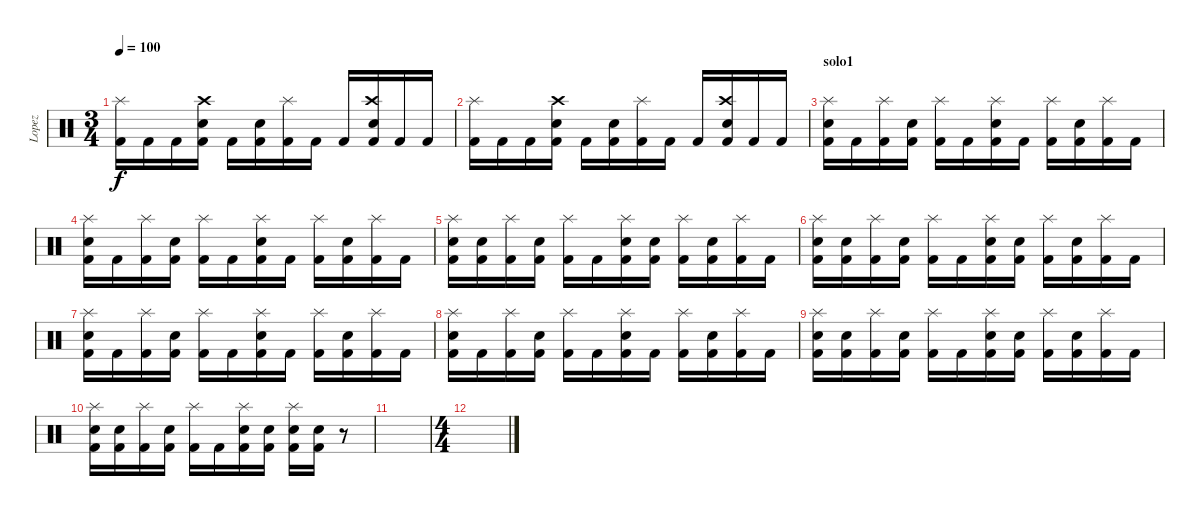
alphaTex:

\track ("Lopez" "Lopez") {instrument percussion}
\staff {score}
\articulation defaults
\ts (3 4)
\tempo 100
\clef neutral
\ks c
("Splash (hit)" "Kick (hit) 2").16{dy f} "Kick (hit) 2".16 "Kick (hit) 2".16 ("Crash high (hit)" "Snare (hit) 2" "Kick (hit) 2").16 "Kick (hit) 2".16 ("Snare (hit) 2" "Kick (hit) 2").16 ("Splash (hit)" "Kick (hit) 2").16 "Kick (hit) 2".16 "Kick (hit) 2".16 ("Crash high (hit)" "Snare (hit) 2" "Kick (hit) 2").16 "Kick (hit) 2".16 "Kick (hit) 2".16 |
("Splash (hit)" "Kick (hit) 2").16 "Kick (hit) 2".16 "Kick (hit) 2".16 ("Crash high (hit)" "Snare (hit) 2" "Kick (hit) 2").16 "Kick (hit) 2".16 ("Snare (hit) 2" "Kick (hit) 2").16 ("Splash (hit)" "Kick (hit) 2").16 "Kick (hit) 2".16 "Kick (hit) 2".16 ("Crash high (hit)" "Snare (hit) 2" "Kick (hit) 2").16 "Kick (hit) 2".16 "Kick (hit) 2".16 |
\section ("" "solo1")
("Splash (hit)" "Snare (hit) 2" "Kick (hit) 2").16 "Kick (hit) 2".16 ("Splash (hit)" "Kick (hit) 2").16 ("Snare (hit) 2" "Kick (hit) 2").16 ("Splash (hit)" "Kick (hit) 2").16 "Kick (hit) 2".16 ("Splash (hit)" "Snare (hit) 2" "Kick (hit) 2").16 "Kick (hit) 2".16 ("Splash (hit)" "Kick (hit) 2").16 ("Snare (hit) 2" "Kick (hit) 2").16 ("Splash (hit)" "Kick (hit) 2").16 "Kick (hit) 2".16 |
("Splash (hit)" "Snare (hit) 2" "Kick (hit) 2").16 "Kick (hit) 2".16 ("Splash (hit)" "Kick (hit) 2").16 ("Snare (hit) 2" "Kick (hit) 2").16 ("Splash (hit)" "Kick (hit) 2").16 "Kick (hit) 2".16 ("Splash (hit)" "Snare (hit) 2" "Kick (hit) 2").16 "Kick (hit) 2".16 ("Splash (hit)" "Kick (hit) 2").16 ("Snare (hit) 2" "Kick (hit) 2").16 ("Splash (hit)" "Kick (hit) 2").16 "Kick (hit) 2".16 |
("Splash (hit)" "Snare (hit) 2" "Kick (hit) 2").16 ("Snare (hit) 2" "Kick (hit) 2").16 ("Splash (hit)" "Kick (hit) 2").16 ("Snare (hit) 2" "Kick (hit) 2").16 ("Splash (hit)" "Kick (hit) 2").16 "Kick (hit) 2".16 ("Splash (hit)" "Snare (hit) 2" "Kick (hit) 2").16 ("Snare (hit) 2" "Kick (hit) 2").16 ("Splash (hit)" "Kick (hit) 2").16 ("Snare (hit) 2" "Kick (hit) 2").16 ("Splash (hit)" "Kick (hit) 2").16 "Kick (hit) 2".16 |
("Splash (hit)" "Snare (hit) 2" "Kick (hit) 2").16 ("Snare (hit) 2" "Kick (hit) 2").16 ("Splash (hit)" "Kick (hit) 2").16 ("Snare (hit) 2" "Kick (hit) 2").16 ("Splash (hit)" "Kick (hit) 2").16 "Kick (hit) 2".16 ("Splash (hit)" "Snare (hit) 2" "Kick (hit) 2").16 ("Snare (hit) 2" "Kick (hit) 2").16 ("Splash (hit)" "Kick (hit) 2").16 ("Snare (hit) 2" "Kick (hit) 2").16 ("Splash (hit)" "Kick (hit) 2").16 "Kick (hit) 2".16 |
("Splash (hit)" "Snare (hit) 2" "Kick (hit) 2").16 "Kick (hit) 2".16 ("Splash (hit)" "Kick (hit) 2").16 ("Snare (hit) 2" "Kick (hit) 2").16 ("Splash (hit)" "Kick (hit) 2").16 "Kick (hit) 2".16 ("Splash (hit)" "Snare (hit) 2" "Kick (hit) 2").16 "Kick (hit) 2".16 ("Splash (hit)" "Kick (hit) 2").16 ("Snare (hit) 2" "Kick (hit) 2").16 ("Splash (hit)" "Kick (hit) 2").16 "Kick (hit) 2".16 |
("Splash (hit)" "Snare (hit) 2" "Kick (hit) 2").16 "Kick (hit) 2".16 ("Splash (hit)" "Kick (hit) 2").16 ("Snare (hit) 2" "Kick (hit) 2").16 ("Splash (hit)" "Kick (hit) 2").16 "Kick (hit) 2".16 ("Splash (hit)" "Snare (hit) 2" "Kick (hit) 2").16 "Kick (hit) 2".16 ("Splash (hit)" "Kick (hit) 2").16 ("Snare (hit) 2" "Kick (hit) 2").16 ("Splash (hit)" "Kick (hit) 2").16 "Kick (hit) 2".16 |
("Splash (hit)" "Snare (hit) 2" "Kick (hit) 2").16 ("Snare (hit) 2" "Kick (hit) 2").16 ("Splash (hit)" "Kick (hit) 2").16 ("Snare (hit) 2" "Kick (hit) 2").16 ("Splash (hit)" "Kick (hit) 2").16 "Kick (hit) 2".16 ("Splash (hit)" "Snare (hit) 2" "Kick (hit) 2").16 ("Snare (hit) 2" "Kick (hit) 2").16 ("Splash (hit)" "Kick (hit) 2").16 ("Snare (hit) 2" "Kick (hit) 2").16 ("Splash (hit)" "Kick (hit) 2").16 "Kick (hit) 2".16 |
("Splash (hit)" "Snare (hit) 2" "Kick (hit) 2").16 ("Snare (hit) 2" "Kick (hit) 2").16 ("Splash (hit)" "Kick (hit) 2").16 ("Snare (hit) 2" "Kick (hit) 2").16 ("Splash (hit)" "Kick (hit) 2").16 "Kick (hit) 2".16 ("Splash (hit)" "Snare (hit) 2" "Kick (hit) 2").16 ("Snare (hit) 2" "Kick (hit) 2").16 ("Splash (hit)" "Snare (hit) 2" "Kick (hit) 2").16 ("Snare (hit) 2" "Kick (hit) 2").16 r.8 |
|
\ts (4 4)
